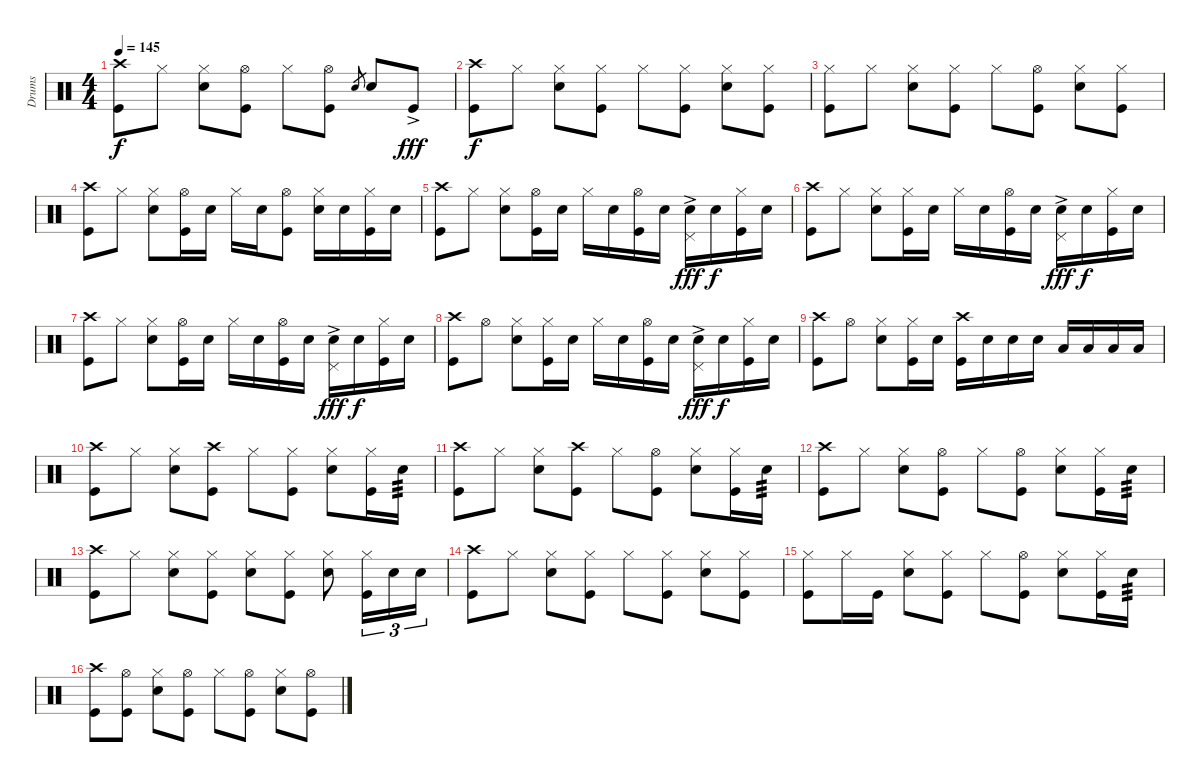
\track ("Drums" "Drums") {instrument percussion}
\staff {score}
\articulation defaults
\ts (4 4)
\tempo 145
\clef neutral
\ks c
("Crash high (hit)" "Kick (hit)").8{dy f} "Hi-Hat (closed)".8 ("Hi-Hat (closed)" "Electric Snare (hit)").8 ("Hi-Hat (open)" "Kick (hit)").8 "Hi-Hat (closed)".8 ("Hi-Hat (open)" "Kick (hit)").8 "Electric Snare (hit)".8{gr} "Electric Snare (hit)".8 "Kick (hit)"{ac}.8{dy fff} |
("Crash high (hit)" "Kick (hit)").8{dy f} "Hi-Hat (closed)".8 ("Hi-Hat (closed)" "Electric Snare (hit)").8 ("Hi-Hat (closed)" "Kick (hit)").8 "Hi-Hat (closed)".8 ("Hi-Hat (closed)" "Kick (hit)").8 ("Hi-Hat (closed)" "Electric Snare (hit)").8 ("Hi-Hat (closed)" "Kick (hit)").8 |
("Hi-Hat (closed)" "Kick (hit)").8 "Hi-Hat (closed)".8 ("Hi-Hat (closed)" "Electric Snare (hit)").8 ("Hi-Hat (closed)" "Kick (hit)").8 "Hi-Hat (closed)".8 ("Hi-Hat (open)" "Kick (hit)").8 ("Hi-Hat (closed)" "Electric Snare (hit)").8 ("Hi-Hat (closed)" "Kick (hit)").8 |
("Crash high (hit)" "Kick (hit)").8 "Hi-Hat (closed)".8 ("Hi-Hat (closed)" "Electric Snare (hit)").8 ("Hi-Hat (open)" "Kick (hit)").16 "Electric Snare (hit)".16 "Hi-Hat (closed)".16 "Electric Snare (hit)".16 ("Hi-Hat (open)" "Kick (hit)").8 ("Hi-Hat (closed)" "Electric Snare (hit)").16 "Electric Snare (hit)".16 ("Hi-Hat (closed)" "Kick (hit)").16 "Electric Snare (hit)".16 |
("Crash high (hit)" "Kick (hit)").8 "Hi-Hat (closed)".8 ("Hi-Hat (closed)" "Electric Snare (hit)").8 ("Hi-Hat (open)" "Kick (hit)").16 "Electric Snare (hit)".16 "Hi-Hat (closed)".16 "Electric Snare (hit)".16 ("Hi-Hat (open)" "Kick (hit)").16 "Electric Snare (hit)".16 ("Electric Snare (hit)"{ac} "Pedal Hi-Hat (hit)").16{dy fff} "Electric Snare (hit)".16{dy f} ("Hi-Hat (closed)" "Kick (hit)").16 "Electric Snare (hit)".16 |
("Crash high (hit)" "Kick (hit)").8 "Hi-Hat (closed)".8 ("Hi-Hat (closed)" "Electric Snare (hit)").8 ("Hi-Hat (closed)" "Kick (hit)").16 "Electric Snare (hit)".16 "Hi-Hat (closed)".16 "Electric Snare (hit)".16 ("Hi-Hat (open)" "Kick (hit)").16 "Electric Snare (hit)".16 ("Electric Snare (hit)"{ac} "Pedal Hi-Hat (hit)").16{dy fff} "Electric Snare (hit)".16{dy f} ("Hi-Hat (closed)" "Kick (hit)").16 "Electric Snare (hit)".16 |
("Crash high (hit)" "Kick (hit)").8 "Hi-Hat (closed)".8 ("Hi-Hat (closed)" "Electric Snare (hit)").8 ("Hi-Hat (open)" "Kick (hit)").16 "Electric Snare (hit)".16 "Hi-Hat (closed)".16 "Electric Snare (hit)".16 ("Hi-Hat (open)" "Kick (hit)").16 "Electric Snare (hit)".16 ("Electric Snare (hit)"{ac} "Pedal Hi-Hat (hit)").16{dy fff} "Electric Snare (hit)".16{dy f} ("Hi-Hat (closed)" "Kick (hit)").16 "Electric Snare (hit)".16 |
("Crash high (hit)" "Kick (hit)").8 "Hi-Hat (open)".8 ("Hi-Hat (closed)" "Electric Snare (hit)").8 ("Hi-Hat (closed)" "Kick (hit)").16 "Electric Snare (hit)".16 "Hi-Hat (closed)".16 "Electric Snare (hit)".16 ("Hi-Hat (open)" "Kick (hit)").16 "Electric Snare (hit)".16 ("Electric Snare (hit)"{ac} "Pedal Hi-Hat (hit)").16{dy fff} "Electric Snare (hit)".16{dy f} ("Hi-Hat (closed)" "Kick (hit)").16 "Electric Snare (hit)".16 |
("Crash high (hit)" "Kick (hit)").8 "Hi-Hat (open)".8 ("Hi-Hat (closed)" "Electric Snare (hit)").8 ("Hi-Hat (closed)" "Kick (hit)").16 "Electric Snare (hit)".16 ("Crash high (hit)" "Kick (hit)").16 "Electric Snare (hit)".16 "Electric Snare (hit)".16 "Electric Snare (hit)".16 "Low Tom (hit)".16 "Low Tom (hit)".16 "Low Floor Tom (hit)".16 "Low Floor Tom (hit)".16 |
("Crash high (hit)" "Kick (hit)").8 "Hi-Hat (closed)".8 ("Hi-Hat (closed)" "Electric Snare (hit)").8 ("Crash high (hit)" "Kick (hit)").8 "Hi-Hat (closed)".8 ("Hi-Hat (closed)" "Kick (hit)").8 ("Hi-Hat (closed)" "Electric Snare (hit)").8 ("Hi-Hat (closed)" "Kick (hit)").16 "Electric Snare (hit)".16{tp 3} |
("Crash high (hit)" "Kick (hit)").8 "Hi-Hat (closed)".8 ("Hi-Hat (closed)" "Electric Snare (hit)").8 ("Crash high (hit)" "Kick (hit)").8 "Hi-Hat (closed)".8 ("Hi-Hat (open)" "Kick (hit)").8 ("Hi-Hat (closed)" "Electric Snare (hit)").8 ("Hi-Hat (closed)" "Kick (hit)").16 "Electric Snare (hit)".16{tp 3} |
("Crash high (hit)" "Kick (hit)").8 "Hi-Hat (closed)".8 ("Hi-Hat (closed)" "Electric Snare (hit)").8 ("Hi-Hat (open)" "Kick (hit)").8 "Hi-Hat (closed)".8 ("Hi-Hat (open)" "Kick (hit)").8 ("Hi-Hat (closed)" "Electric Snare (hit)").8 ("Hi-Hat (closed)" "Kick (hit)").16 "Electric Snare (hit)".16{tp 3} |
("Crash high (hit)" "Kick (hit)").8 "Hi-Hat (closed)".8 ("Hi-Hat (closed)" "Electric Snare (hit)").8 ("Hi-Hat (closed)" "Kick (hit)").8 ("Hi-Hat (closed)" "Electric Snare (hit)").8 ("Hi-Hat (closed)" "Kick (hit)").8 ("Hi-Hat (closed)" "Electric Snare (hit)").8 ("Hi-Hat (closed)" "Kick (hit)").16{tu (3 2)} "Electric Snare (hit)".16{tu (3 2)} "Electric Snare (hit)".16{tu (3 2)} |
("Crash high (hit)" "Kick (hit)").8 "Hi-Hat (closed)".8 ("Hi-Hat (closed)" "Electric Snare (hit)").8 ("Hi-Hat (closed)" "Kick (hit)").8 "Hi-Hat (closed)".8 ("Hi-Hat (closed)" "Kick (hit)").8 ("Hi-Hat (closed)" "Electric Snare (hit)").8 ("Hi-Hat (closed)" "Kick (hit)").8 |
("Hi-Hat (closed)" "Kick (hit)").8 "Hi-Hat (closed)".16 "Kick (hit)".16 ("Hi-Hat (closed)" "Electric Snare (hit)").8 ("Hi-Hat (closed)" "Kick (hit)").8 "Hi-Hat (closed)".8 ("Hi-Hat (open)" "Kick (hit)").8 ("Hi-Hat (closed)" "Electric Snare (hit)").8 ("Hi-Hat (closed)" "Kick (hit)").16 "Electric Snare (hit)".16{tp 3} |
("Crash high (hit)" "Kick (hit)").8 ("Hi-Hat (open)" "Kick (hit)").8 ("Hi-Hat (closed)" "Electric Snare (hit)").8 ("Hi-Hat (open)" "Kick (hit)").8 "Hi-Hat (closed)".8 ("Hi-Hat (open)" "Kick (hit)").8 ("Hi-Hat (closed)" "Electric Snare (hit)").8 ("Hi-Hat (open)" "Kick (hit)").8
